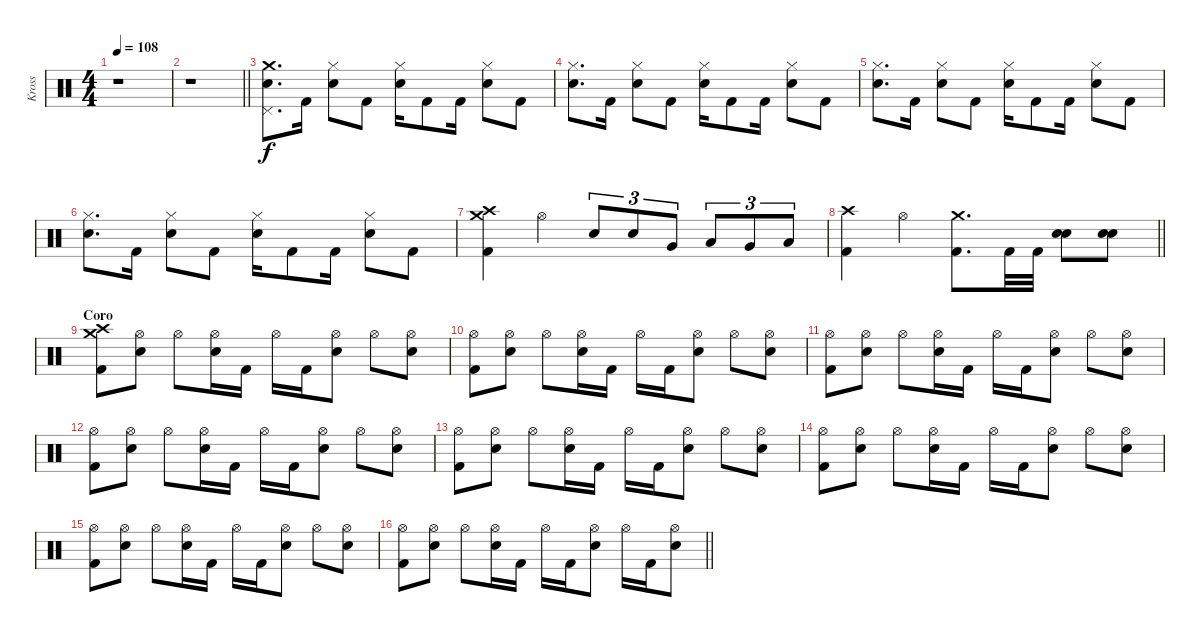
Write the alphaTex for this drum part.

\track ("Kross" "Kross") {instrument percussion}
\staff {score}
\articulation defaults
\ts (4 4)
\tempo 108
\clef neutral
\ks c
r.1{dy f} |
\barLineRight lightlight
r.1 |
("Crash medium (hit)" "Pedal Hi-Hat (hit)" "Electric Snare (hit)").8{d volume 16} "Kick (hit) 2".16 ("Hi-Hat (closed)" "Electric Snare (hit)").8 "Kick (hit) 2".8 ("Hi-Hat (closed)" "Electric Snare (hit)").16 "Kick (hit) 2".8 "Kick (hit) 2".16 ("Hi-Hat (closed)" "Electric Snare (hit)").8 "Kick (hit) 2".8 |
("Hi-Hat (closed)" "Electric Snare (hit)").8{d} "Kick (hit) 2".16 ("Hi-Hat (closed)" "Electric Snare (hit)").8 "Kick (hit) 2".8 ("Hi-Hat (closed)" "Electric Snare (hit)").16 "Kick (hit) 2".8 "Kick (hit) 2".16 ("Hi-Hat (closed)" "Electric Snare (hit)").8 "Kick (hit) 2".8 |
("Hi-Hat (closed)" "Electric Snare (hit)").8{d} "Kick (hit) 2".16 ("Hi-Hat (closed)" "Electric Snare (hit)").8 "Kick (hit) 2".8 ("Hi-Hat (closed)" "Electric Snare (hit)").16 "Kick (hit) 2".8 "Kick (hit) 2".16 ("Hi-Hat (closed)" "Electric Snare (hit)").8 "Kick (hit) 2".8 |
("Hi-Hat (closed)" "Electric Snare (hit)").8{d} "Kick (hit) 2".16 ("Hi-Hat (closed)" "Electric Snare (hit)").8 "Kick (hit) 2".8 ("Hi-Hat (closed)" "Electric Snare (hit)").16 "Kick (hit) 2".8 "Kick (hit) 2".16 ("Hi-Hat (closed)" "Electric Snare (hit)").8 "Kick (hit) 2".8 |
("Crash medium (hit)" "Crash high (hit)" "Kick (hit) 2").4 "Hi-Hat (open)".4 "Electric Snare (hit)".8{tu (3 2)} "Electric Snare (hit)".8{tu (3 2)} "Very Low Tom (hit)".8{tu (3 2)} "Low Tom (hit)".8{tu (3 2)} "Very Low Tom (hit)".8{tu (3 2)} "Low Floor Tom (hit)".8{tu (3 2)} |
\barLineRight lightlight
("Crash high (hit)" "Kick (hit) 2").4 "Hi-Hat (open)".4 ("Crash medium (hit)" "Kick (hit) 2").8{d} "Kick (hit) 2".32 "Kick (hit) 2".32 ("Electric Snare (hit)" "Electric Snare (hit)").8 ("Electric Snare (hit)" "Electric Snare (hit)").8 |
\section ("" "Coro")
("Crash medium (hit)" "Crash high (hit)" "Kick (hit) 2").8 ("Hi-Hat (open)" "Electric Snare (hit)").8 "Hi-Hat (open)".8 ("Hi-Hat (open)" "Electric Snare (hit)").16 "Kick (hit) 2".16 "Hi-Hat (open)".16 "Kick (hit) 2".16 ("Hi-Hat (open)" "Electric Snare (hit)").8 "Hi-Hat (open)".8 ("Hi-Hat (open)" "Electric Snare (hit)").8 |
("Hi-Hat (open)" "Kick (hit) 2").8 ("Hi-Hat (open)" "Electric Snare (hit)").8 "Hi-Hat (open)".8 ("Hi-Hat (open)" "Electric Snare (hit)").16 "Kick (hit) 2".16 "Hi-Hat (open)".16 "Kick (hit) 2".16 ("Hi-Hat (open)" "Electric Snare (hit)").8 "Hi-Hat (open)".8 ("Hi-Hat (open)" "Electric Snare (hit)").8 |
("Hi-Hat (open)" "Kick (hit) 2").8 ("Hi-Hat (open)" "Electric Snare (hit)").8 "Hi-Hat (open)".8 ("Hi-Hat (open)" "Electric Snare (hit)").16 "Kick (hit) 2".16 "Hi-Hat (open)".16 "Kick (hit) 2".16 ("Hi-Hat (open)" "Electric Snare (hit)").8 "Hi-Hat (open)".8 ("Hi-Hat (open)" "Electric Snare (hit)").8 |
("Hi-Hat (open)" "Kick (hit) 2").8 ("Hi-Hat (open)" "Electric Snare (hit)").8 "Hi-Hat (open)".8 ("Hi-Hat (open)" "Electric Snare (hit)").16 "Kick (hit) 2".16 "Hi-Hat (open)".16 "Kick (hit) 2".16 ("Hi-Hat (open)" "Electric Snare (hit)").8 "Hi-Hat (open)".8 ("Hi-Hat (open)" "Electric Snare (hit)").8 |
("Hi-Hat (open)" "Kick (hit) 2").8 ("Hi-Hat (open)" "Electric Snare (hit)").8 "Hi-Hat (open)".8 ("Hi-Hat (open)" "Electric Snare (hit)").16 "Kick (hit) 2".16 "Hi-Hat (open)".16 "Kick (hit) 2".16 ("Hi-Hat (open)" "Electric Snare (hit)").8 "Hi-Hat (open)".8 ("Hi-Hat (open)" "Electric Snare (hit)").8 |
("Hi-Hat (open)" "Kick (hit) 2").8 ("Hi-Hat (open)" "Electric Snare (hit)").8 "Hi-Hat (open)".8 ("Hi-Hat (open)" "Electric Snare (hit)").16 "Kick (hit) 2".16 "Hi-Hat (open)".16 "Kick (hit) 2".16 ("Hi-Hat (open)" "Electric Snare (hit)").8 "Hi-Hat (open)".8 ("Hi-Hat (open)" "Electric Snare (hit)").8 |
("Hi-Hat (open)" "Kick (hit) 2").8 ("Hi-Hat (open)" "Electric Snare (hit)").8 "Hi-Hat (open)".8 ("Hi-Hat (open)" "Electric Snare (hit)").16 "Kick (hit) 2".16 "Hi-Hat (open)".16 "Kick (hit) 2".16 ("Hi-Hat (open)" "Electric Snare (hit)").8 "Hi-Hat (open)".8 ("Hi-Hat (open)" "Electric Snare (hit)").8 |
\barLineRight lightlight
("Hi-Hat (open)" "Kick (hit) 2").8 ("Hi-Hat (open)" "Electric Snare (hit)").8 "Hi-Hat (open)".8 ("Hi-Hat (open)" "Electric Snare (hit)").16 "Kick (hit) 2".16 "Hi-Hat (open)".16 "Kick (hit) 2".16 ("Hi-Hat (open)" "Electric Snare (hit)").8 "Hi-Hat (open)".16 "Kick (hit) 2".16 ("Hi-Hat (open)" "Electric Snare (hit)").8
